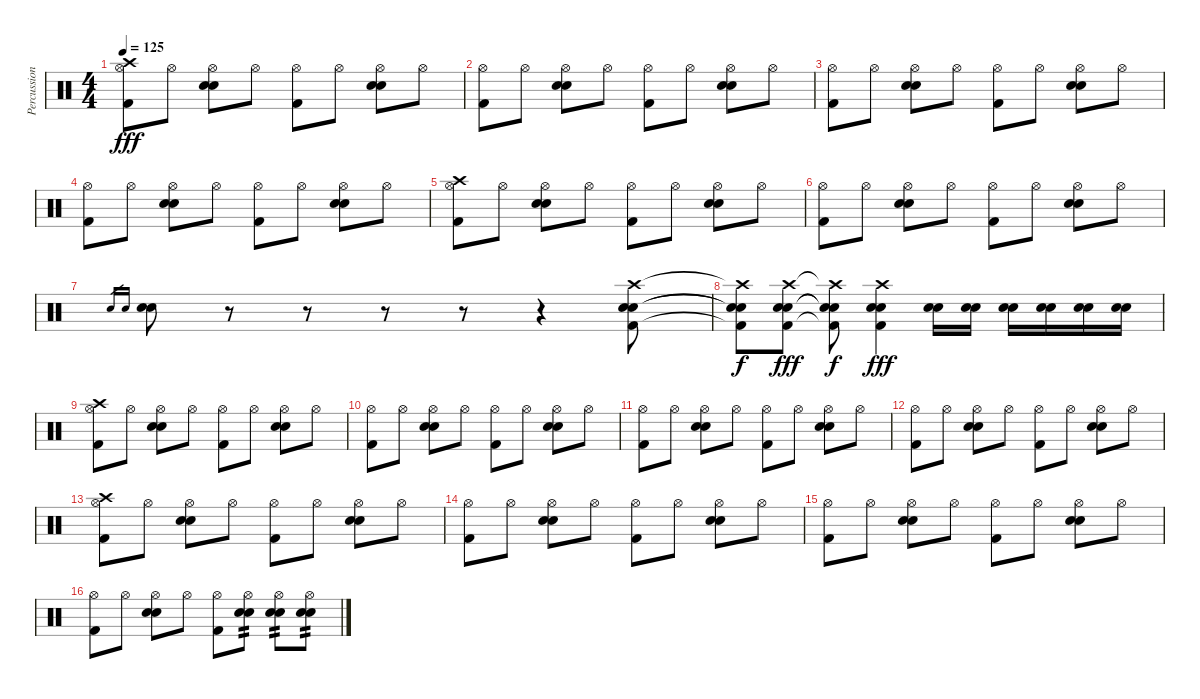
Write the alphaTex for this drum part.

\track ("Percussion" "Percussion") {instrument percussion}
\staff {score}
\articulation defaults
\ts (4 4)
\tempo 125
\clef neutral
\ks c
("Crash high (hit)" "Hi-Hat (open)" "Kick (hit) 2").8{dy fff} "Hi-Hat (open)".8 ("Electric Snare (hit)" "Snare (hit) 2" "Hi-Hat (open)").8 "Hi-Hat (open)".8 ("Hi-Hat (open)" "Kick (hit) 2").8 "Hi-Hat (open)".8 ("Electric Snare (hit)" "Snare (hit) 2" "Hi-Hat (open)").8 "Hi-Hat (open)".8 |
("Hi-Hat (open)" "Kick (hit) 2").8 "Hi-Hat (open)".8 ("Electric Snare (hit)" "Snare (hit) 2" "Hi-Hat (open)").8 "Hi-Hat (open)".8 ("Hi-Hat (open)" "Kick (hit) 2").8 "Hi-Hat (open)".8 ("Electric Snare (hit)" "Snare (hit) 2" "Hi-Hat (open)").8 "Hi-Hat (open)".8 |
("Hi-Hat (open)" "Kick (hit) 2").8 "Hi-Hat (open)".8 ("Electric Snare (hit)" "Snare (hit) 2" "Hi-Hat (open)").8 "Hi-Hat (open)".8 ("Hi-Hat (open)" "Kick (hit) 2").8 "Hi-Hat (open)".8 ("Electric Snare (hit)" "Snare (hit) 2" "Hi-Hat (open)").8 "Hi-Hat (open)".8 |
("Hi-Hat (open)" "Kick (hit) 2").8 "Hi-Hat (open)".8 ("Electric Snare (hit)" "Snare (hit) 2" "Hi-Hat (open)").8 "Hi-Hat (open)".8 ("Hi-Hat (open)" "Kick (hit) 2").8 "Hi-Hat (open)".8 ("Electric Snare (hit)" "Snare (hit) 2" "Hi-Hat (open)").8 "Hi-Hat (open)".8 |
("Crash high (hit)" "Hi-Hat (open)" "Kick (hit) 2").8 "Hi-Hat (open)".8 ("Electric Snare (hit)" "Snare (hit) 2" "Hi-Hat (open)").8 "Hi-Hat (open)".8 ("Hi-Hat (open)" "Kick (hit) 2").8 "Hi-Hat (open)".8 ("Electric Snare (hit)" "Snare (hit) 2" "Hi-Hat (open)").8 "Hi-Hat (open)".8 |
("Hi-Hat (open)" "Kick (hit) 2").8 "Hi-Hat (open)".8 ("Electric Snare (hit)" "Snare (hit) 2" "Hi-Hat (open)").8 "Hi-Hat (open)".8 ("Hi-Hat (open)" "Kick (hit) 2").8 "Hi-Hat (open)".8 ("Electric Snare (hit)" "Snare (hit) 2" "Hi-Hat (open)").8 "Hi-Hat (open)".8 |
"Electric Snare (hit)".16{gr} "Snare (hit) 2".16{gr} ("Electric Snare (hit)" "Snare (hit) 2").8 r.8 r.8 r.8 r.8 r.4 ("Crash high (hit)" "Electric Snare (hit)" "Snare (hit) 2" "Kick (hit) 2").8 |
("Crash high (hit)"{t} "Electric Snare (hit)"{t} "Snare (hit) 2"{t} "Kick (hit) 2"{t}).8{dy f} ("Crash high (hit)" "Electric Snare (hit)" "Snare (hit) 2" "Kick (hit) 2").8{dy fff} ("Crash high (hit)"{t} "Electric Snare (hit)"{t} "Snare (hit) 2"{t} "Kick (hit) 2"{t}).8{dy f} ("Crash high (hit)" "Electric Snare (hit)" "Snare (hit) 2" "Kick (hit) 2").4{dy fff} ("Snare (hit) 2" "Electric Snare (hit)").16 ("Snare (hit) 2" "Electric Snare (hit)").16 ("Snare (hit) 2" "Electric Snare (hit)").16 ("Snare (hit) 2" "Electric Snare (hit)").16 ("Snare (hit) 2" "Electric Snare (hit)").16 ("Snare (hit) 2" "Electric Snare (hit)").16 |
("Crash high (hit)" "Hi-Hat (open)" "Kick (hit) 2").8 "Hi-Hat (open)".8 ("Electric Snare (hit)" "Snare (hit) 2" "Hi-Hat (open)").8 "Hi-Hat (open)".8 ("Hi-Hat (open)" "Kick (hit) 2").8 "Hi-Hat (open)".8 ("Electric Snare (hit)" "Snare (hit) 2" "Hi-Hat (open)").8 "Hi-Hat (open)".8 |
("Hi-Hat (open)" "Kick (hit) 2").8 "Hi-Hat (open)".8 ("Electric Snare (hit)" "Snare (hit) 2" "Hi-Hat (open)").8 "Hi-Hat (open)".8 ("Hi-Hat (open)" "Kick (hit) 2").8 "Hi-Hat (open)".8 ("Electric Snare (hit)" "Snare (hit) 2" "Hi-Hat (open)").8 "Hi-Hat (open)".8 |
("Hi-Hat (open)" "Kick (hit) 2").8 "Hi-Hat (open)".8 ("Electric Snare (hit)" "Snare (hit) 2" "Hi-Hat (open)").8 "Hi-Hat (open)".8 ("Hi-Hat (open)" "Kick (hit) 2").8 "Hi-Hat (open)".8 ("Electric Snare (hit)" "Snare (hit) 2" "Hi-Hat (open)").8 "Hi-Hat (open)".8 |
("Hi-Hat (open)" "Kick (hit) 2").8 "Hi-Hat (open)".8 ("Electric Snare (hit)" "Snare (hit) 2" "Hi-Hat (open)").8 "Hi-Hat (open)".8 ("Hi-Hat (open)" "Kick (hit) 2").8 "Hi-Hat (open)".8 ("Electric Snare (hit)" "Snare (hit) 2" "Hi-Hat (open)").8 "Hi-Hat (open)".8 |
("Crash high (hit)" "Hi-Hat (open)" "Kick (hit) 2").8 "Hi-Hat (open)".8 ("Electric Snare (hit)" "Snare (hit) 2" "Hi-Hat (open)").8 "Hi-Hat (open)".8 ("Hi-Hat (open)" "Kick (hit) 2").8 "Hi-Hat (open)".8 ("Electric Snare (hit)" "Snare (hit) 2" "Hi-Hat (open)").8 "Hi-Hat (open)".8 |
("Hi-Hat (open)" "Kick (hit) 2").8 "Hi-Hat (open)".8 ("Electric Snare (hit)" "Snare (hit) 2" "Hi-Hat (open)").8 "Hi-Hat (open)".8 ("Hi-Hat (open)" "Kick (hit) 2").8 "Hi-Hat (open)".8 ("Electric Snare (hit)" "Snare (hit) 2" "Hi-Hat (open)").8 "Hi-Hat (open)".8 |
("Hi-Hat (open)" "Kick (hit) 2").8 "Hi-Hat (open)".8 ("Electric Snare (hit)" "Snare (hit) 2" "Hi-Hat (open)").8 "Hi-Hat (open)".8 ("Hi-Hat (open)" "Kick (hit) 2").8 "Hi-Hat (open)".8 ("Electric Snare (hit)" "Snare (hit) 2" "Hi-Hat (open)").8 "Hi-Hat (open)".8 |
("Hi-Hat (open)" "Kick (hit) 2").8 "Hi-Hat (open)".8 ("Electric Snare (hit)" "Snare (hit) 2" "Hi-Hat (open)").8 "Hi-Hat (open)".8 ("Hi-Hat (open)" "Kick (hit) 2").8 ("Electric Snare (hit)" "Snare (hit) 2" "Hi-Hat (open)").8{tp 2} ("Electric Snare (hit)" "Snare (hit) 2" "Hi-Hat (open)").8{tp 2} ("Electric Snare (hit)" "Snare (hit) 2" "Hi-Hat (open)").8{tp 2}
